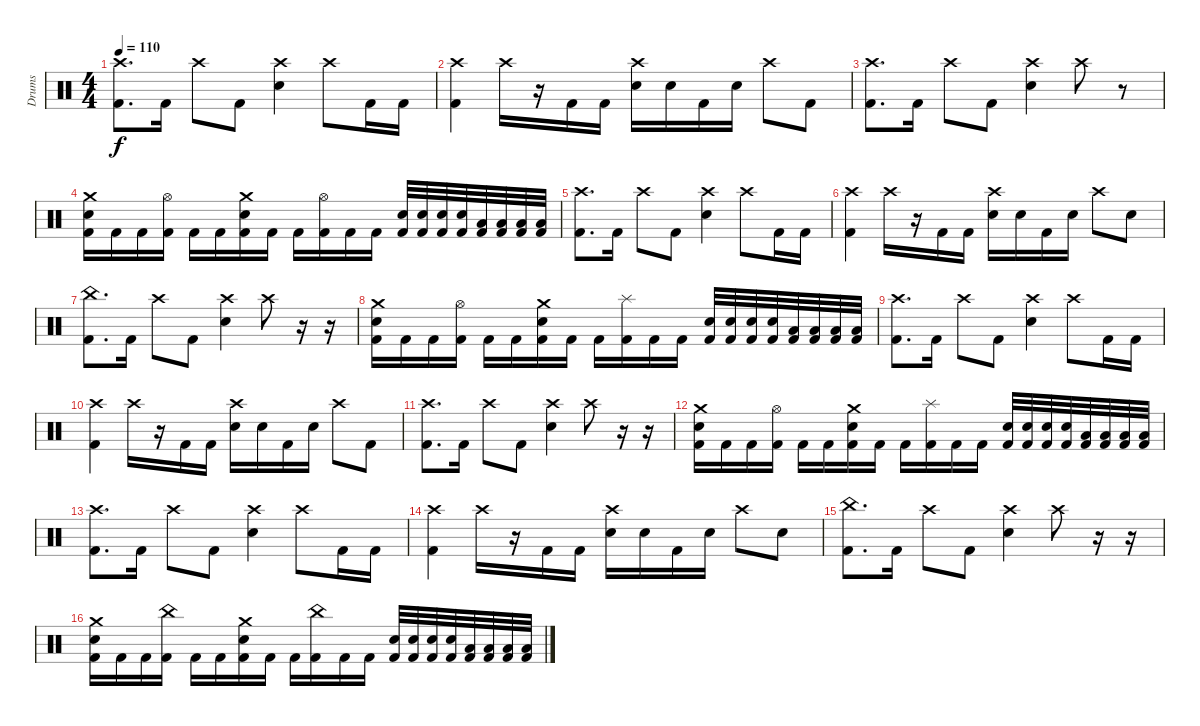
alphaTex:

\track ("Drums" "Drums") {instrument percussion}
\staff {score}
\articulation defaults
\ts (4 4)
\tempo 110
\clef neutral
\ks c
("Crash high (hit)" "Kick (hit) 2").8{d dy f} "Kick (hit) 2".16 "Crash high (hit)".8 "Kick (hit) 2".8 ("Crash high (hit)" "Electric Snare (hit)").4 "Crash high (hit)".8 "Kick (hit) 2".16 "Kick (hit) 2".16 |
("Crash high (hit)" "Kick (hit) 2").4 "Crash high (hit)".16 r.16 "Kick (hit) 2".16 "Kick (hit) 2".16 ("Crash high (hit)" "Electric Snare (hit)").16 "Electric Snare (hit)".16 "Kick (hit) 2".16 "Electric Snare (hit)".16 "Crash high (hit)".8 "Kick (hit) 2".8 |
("Crash high (hit)" "Kick (hit) 2").8{d} "Kick (hit) 2".16 "Crash high (hit)".8 "Kick (hit) 2".8 ("Crash high (hit)" "Electric Snare (hit)").4 "Crash high (hit)".8 r.8 |
("Crash medium (hit)" "Electric Snare (hit)" "Kick (hit) 2").16 "Kick (hit) 2".16 "Kick (hit) 2".16 ("Hi-Hat (open)" "Kick (hit) 2").16 "Kick (hit) 2".16 "Kick (hit) 2".16 ("Crash medium (hit)" "Electric Snare (hit)" "Kick (hit) 2").16 "Kick (hit) 2".16 "Kick (hit) 2".16 ("Hi-Hat (open)" "Kick (hit) 2").16 "Kick (hit) 2".16 "Kick (hit) 2".16 ("Electric Snare (hit)" "Kick (hit) 2").32 ("Electric Snare (hit)" "Kick (hit) 2").32 ("Electric Snare (hit)" "Kick (hit) 2").32 ("Electric Snare (hit)" "Kick (hit) 2").32 ("Low Tom (hit)" "Kick (hit) 2").32 ("Low Tom (hit)" "Kick (hit) 2").32 ("Low Tom (hit)" "Kick (hit) 2").32 ("Low Tom (hit)" "Kick (hit) 2").32 |
("Crash high (hit)" "Kick (hit) 2").8{d} "Kick (hit) 2".16 "Crash high (hit)".8 "Kick (hit) 2".8 ("Crash high (hit)" "Electric Snare (hit)").4 "Crash high (hit)".8 "Kick (hit) 2".16 "Kick (hit) 2".16 |
("Crash high (hit)" "Kick (hit) 2").4 "Crash high (hit)".16 r.16 "Kick (hit) 2".16 "Kick (hit) 2".16 ("Crash high (hit)" "Electric Snare (hit)").16 "Electric Snare (hit)".16 "Kick (hit) 2".16 "Electric Snare (hit)".16 "Crash high (hit)".8 "Electric Snare (hit)".8 |
("China (hit)" "Kick (hit) 2").8{d} "Kick (hit) 2".16 "Crash high (hit)".8 "Kick (hit) 2".8 ("Crash high (hit)" "Electric Snare (hit)").4 "Crash high (hit)".8 r.16 r.16 |
("Crash medium (hit)" "Electric Snare (hit)" "Kick (hit) 2").16 "Kick (hit) 2".16 "Kick (hit) 2".16 ("Hi-Hat (open)" "Kick (hit) 2").16 "Kick (hit) 2".16 "Kick (hit) 2".16 ("Crash medium (hit)" "Electric Snare (hit)" "Kick (hit) 2").16 "Kick (hit) 2".16 "Kick (hit) 2".16 ("Splash (hit)" "Kick (hit) 2").16 "Kick (hit) 2".16 "Kick (hit) 2".16 ("Electric Snare (hit)" "Kick (hit) 2").32 ("Electric Snare (hit)" "Kick (hit) 2").32 ("Electric Snare (hit)" "Kick (hit) 2").32 ("Electric Snare (hit)" "Kick (hit) 2").32 ("Low Tom (hit)" "Kick (hit) 2").32 ("Low Tom (hit)" "Kick (hit) 2").32 ("Low Tom (hit)" "Kick (hit) 2").32 ("Low Tom (hit)" "Kick (hit) 2").32 |
("Crash high (hit)" "Kick (hit) 2").8{d} "Kick (hit) 2".16 "Crash high (hit)".8 "Kick (hit) 2".8 ("Crash high (hit)" "Electric Snare (hit)").4 "Crash high (hit)".8 "Kick (hit) 2".16 "Kick (hit) 2".16 |
("Crash high (hit)" "Kick (hit) 2").4 "Crash high (hit)".16 r.16 "Kick (hit) 2".16 "Kick (hit) 2".16 ("Crash high (hit)" "Electric Snare (hit)").16 "Electric Snare (hit)".16 "Kick (hit) 2".16 "Electric Snare (hit)".16 "Crash high (hit)".8 "Kick (hit) 2".8 |
("Crash high (hit)" "Kick (hit) 2").8{d} "Kick (hit) 2".16 "Crash high (hit)".8 "Kick (hit) 2".8 ("Crash high (hit)" "Electric Snare (hit)").4 "Crash high (hit)".8 r.16 r.16 |
("Crash medium (hit)" "Electric Snare (hit)" "Kick (hit) 2").16 "Kick (hit) 2".16 "Kick (hit) 2".16 ("Hi-Hat (open)" "Kick (hit) 2").16 "Kick (hit) 2".16 "Kick (hit) 2".16 ("Crash medium (hit)" "Electric Snare (hit)" "Kick (hit) 2").16 "Kick (hit) 2".16 "Kick (hit) 2".16 ("Splash (hit)" "Kick (hit) 2").16 "Kick (hit) 2".16 "Kick (hit) 2".16 ("Electric Snare (hit)" "Kick (hit) 2").32 ("Electric Snare (hit)" "Kick (hit) 2").32 ("Electric Snare (hit)" "Kick (hit) 2").32 ("Electric Snare (hit)" "Kick (hit) 2").32 ("Low Tom (hit)" "Kick (hit) 2").32 ("Low Tom (hit)" "Kick (hit) 2").32 ("Low Tom (hit)" "Kick (hit) 2").32 ("Low Tom (hit)" "Kick (hit) 2").32 |
("Crash high (hit)" "Kick (hit) 2").8{d} "Kick (hit) 2".16 "Crash high (hit)".8 "Kick (hit) 2".8 ("Crash high (hit)" "Electric Snare (hit)").4 "Crash high (hit)".8 "Kick (hit) 2".16 "Kick (hit) 2".16 |
("Crash high (hit)" "Kick (hit) 2").4 "Crash high (hit)".16 r.16 "Kick (hit) 2".16 "Kick (hit) 2".16 ("Crash high (hit)" "Electric Snare (hit)").16 "Electric Snare (hit)".16 "Kick (hit) 2".16 "Electric Snare (hit)".16 "Crash high (hit)".8 "Electric Snare (hit)".8 |
("China (hit)" "Kick (hit) 2").8{d} "Kick (hit) 2".16 "Crash high (hit)".8 "Kick (hit) 2".8 ("Crash high (hit)" "Electric Snare (hit)").4 "Crash high (hit)".8 r.16 r.16 |
("Crash medium (hit)" "Electric Snare (hit)" "Kick (hit) 2").16 "Kick (hit) 2".16 "Kick (hit) 2".16 ("China (hit)" "Kick (hit) 2").16 "Kick (hit) 2".16 "Kick (hit) 2".16 ("Crash medium (hit)" "Electric Snare (hit)" "Kick (hit) 2").16 "Kick (hit) 2".16 "Kick (hit) 2".16 ("China (hit)" "Kick (hit) 2").16 "Kick (hit) 2".16 "Kick (hit) 2".16 ("Electric Snare (hit)" "Kick (hit) 2").32 ("Electric Snare (hit)" "Kick (hit) 2").32 ("Electric Snare (hit)" "Kick (hit) 2").32 ("Electric Snare (hit)" "Kick (hit) 2").32 ("Low Tom (hit)" "Kick (hit) 2").32 ("Low Tom (hit)" "Kick (hit) 2").32 ("Low Tom (hit)" "Kick (hit) 2").32 ("Low Tom (hit)" "Kick (hit) 2").32
